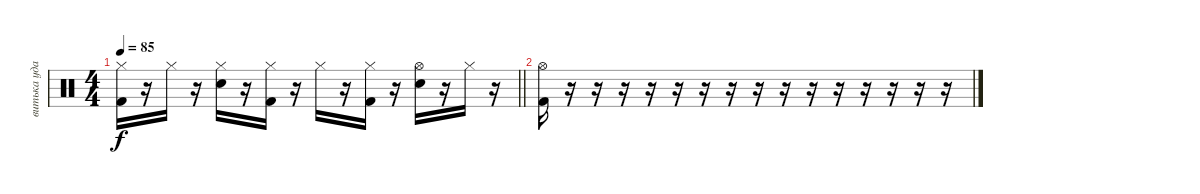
\track ("витька ударные" "витька уда") {instrument percussion}
\staff {score}
\articulation defaults
\ts (4 4)
\tempo 85
\clef neutral
\barLineRight lightlight
\ks c
("Kick (hit) 2" "Hi-Hat (closed)").16{dy f} r.16 "Hi-Hat (closed)".16 r.16 ("Snare (hit) 2" "Hi-Hat (closed)").16 r.16 ("Kick (hit) 2" "Hi-Hat (closed)").16 r.16 "Hi-Hat (closed)".16 r.16 ("Kick (hit) 2" "Hi-Hat (closed)").16 r.16 ("Snare (hit) 2" "Hi-Hat (open)").16 r.16 "Hi-Hat (closed)".16 r.16 |
("Kick (hit) 2" "Hi-Hat (open)").16 r.16 r.16 r.16 r.16 r.16 r.16 r.16 r.16 r.16 r.16 r.16 r.16 r.16 r.16 r.16
